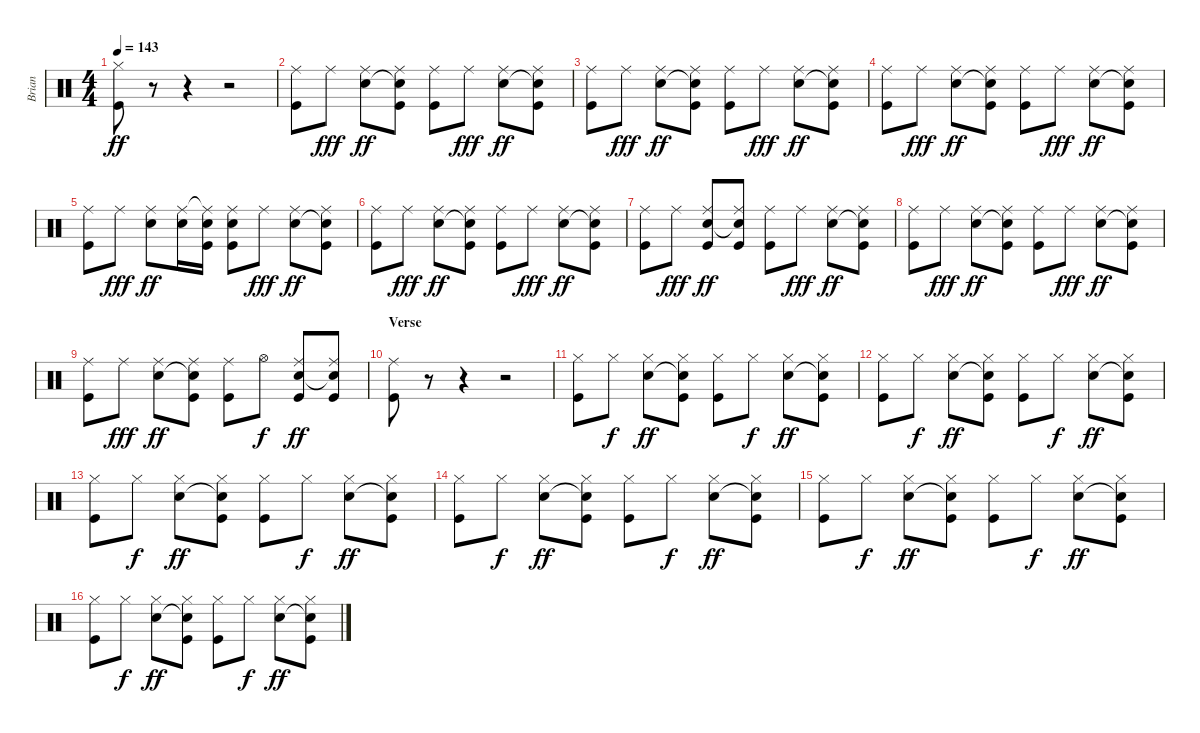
\track ("Brian" "Brian") {instrument percussion}
\staff {score}
\articulation defaults
\ts (4 4)
\tempo 143
\clef neutral
\ks c
("Hi-Hat (closed)" "Kick (hit)").8{dy ff} r.8 r.4 r.2 |
("Ride (middle)" "Kick (hit)").8 "Ride (middle)".8{dy fff} ("Ride (middle)" "Electric Snare (hit)").8{dy ff} ("Ride (middle)" "Snare (hit)"{t} "Kick (hit)").8 ("Ride (middle)" "Kick (hit)").8 "Ride (middle)".8{dy fff} ("Ride (middle)" "Electric Snare (hit)").8{dy ff} ("Ride (middle)" "Snare (hit)"{t} "Kick (hit)").8 |
("Ride (middle)" "Kick (hit)").8 "Ride (middle)".8{dy fff} ("Ride (middle)" "Electric Snare (hit)").8{dy ff} ("Ride (middle)" "Snare (hit)"{t} "Kick (hit)").8 ("Ride (middle)" "Kick (hit)").8 "Ride (middle)".8{dy fff} ("Ride (middle)" "Electric Snare (hit)").8{dy ff} ("Ride (middle)" "Snare (hit)"{t} "Kick (hit)").8 |
("Ride (middle)" "Kick (hit)").8 "Ride (middle)".8{dy fff} ("Ride (middle)" "Electric Snare (hit)").8{dy ff} ("Ride (middle)" "Snare (hit)"{t} "Kick (hit)").8 ("Ride (middle)" "Kick (hit)").8 "Ride (middle)".8{dy fff} ("Ride (middle)" "Electric Snare (hit)").8{dy ff} ("Ride (middle)" "Snare (hit)"{t} "Kick (hit)").8 |
("Ride (middle)" "Kick (hit)").8 "Ride (middle)".8{dy fff} ("Ride (middle)" "Electric Snare (hit)").8{dy ff} ("Ride (middle)" "Electric Snare (hit)").16 ("Ride (middle)"{t} "Electric Snare (hit)" "Kick (hit)").16 ("Ride (middle)" "Electric Snare (hit)" "Kick (hit)").8 "Ride (middle)".8{dy fff} ("Ride (middle)" "Electric Snare (hit)").8{dy ff} ("Ride (middle)" "Snare (hit)"{t} "Kick (hit)").8 |
("Ride (middle)" "Kick (hit)").8 "Ride (middle)".8{dy fff} ("Ride (middle)" "Electric Snare (hit)").8{dy ff} ("Ride (middle)" "Snare (hit)"{t} "Kick (hit)").8 ("Ride (middle)" "Kick (hit)").8 "Ride (middle)".8{dy fff} ("Ride (middle)" "Electric Snare (hit)").8{dy ff} ("Ride (middle)" "Snare (hit)"{t} "Kick (hit)").8 |
("Ride (middle)" "Kick (hit)").8 "Ride (middle)".8{dy fff} ("Ride (middle)" "Electric Snare (hit)" "Kick (hit)").8{dy ff} ("Ride (middle)" "Snare (hit)"{t} "Kick (hit)").8 ("Ride (middle)" "Kick (hit)").8 "Ride (middle)".8{dy fff} ("Ride (middle)" "Electric Snare (hit)").8{dy ff} ("Ride (middle)" "Snare (hit)"{t} "Kick (hit)").8 |
("Ride (middle)" "Kick (hit)").8 "Ride (middle)".8{dy fff} ("Ride (middle)" "Electric Snare (hit)").8{dy ff} ("Ride (middle)" "Snare (hit)"{t} "Kick (hit)").8 ("Ride (middle)" "Kick (hit)").8 "Ride (middle)".8{dy fff} ("Ride (middle)" "Electric Snare (hit)").8{dy ff} ("Ride (middle)" "Snare (hit)"{t} "Kick (hit)").8 |
("Ride (middle)" "Kick (hit)").8 "Ride (middle)".8{dy fff} ("Ride (middle)" "Electric Snare (hit)").8{dy ff} ("Ride (middle)" "Snare (hit)"{t} "Kick (hit)").8 ("Ride (middle)" "Kick (hit)").8 "Hi-Hat (open)".8{dy f} ("Ride (middle)" "Electric Snare (hit)" "Kick (hit)").8{dy ff} ("Ride (middle)" "Snare (hit)"{t} "Kick (hit)").8 |
\section ("" "Verse")
("Ride (middle)" "Kick (hit)").8 r.8 r.4 r.2 |
("Hi-Hat (closed)" "Kick (hit)").8 "Hi-Hat (closed)".8{dy f} ("Hi-Hat (closed)" "Electric Snare (hit)").8{dy ff} ("Hi-Hat (closed)" "Snare (hit)"{t} "Kick (hit)").8 ("Hi-Hat (closed)" "Kick (hit)").8 "Hi-Hat (closed)".8{dy f} ("Hi-Hat (closed)" "Electric Snare (hit)").8{dy ff} ("Hi-Hat (closed)" "Snare (hit)"{t} "Kick (hit)").8 |
("Hi-Hat (closed)" "Kick (hit)").8 "Hi-Hat (closed)".8{dy f} ("Hi-Hat (closed)" "Electric Snare (hit)").8{dy ff} ("Hi-Hat (closed)" "Snare (hit)"{t} "Kick (hit)").8 ("Hi-Hat (closed)" "Kick (hit)").8 "Hi-Hat (closed)".8{dy f} ("Hi-Hat (closed)" "Electric Snare (hit)").8{dy ff} ("Hi-Hat (closed)" "Snare (hit)"{t} "Kick (hit)").8 |
("Hi-Hat (closed)" "Kick (hit)").8 "Hi-Hat (closed)".8{dy f} ("Hi-Hat (closed)" "Electric Snare (hit)").8{dy ff} ("Hi-Hat (closed)" "Snare (hit)"{t} "Kick (hit)").8 ("Hi-Hat (closed)" "Kick (hit)").8 "Hi-Hat (closed)".8{dy f} ("Hi-Hat (closed)" "Electric Snare (hit)").8{dy ff} ("Hi-Hat (closed)" "Snare (hit)"{t} "Kick (hit)").8 |
("Hi-Hat (closed)" "Kick (hit)").8 "Hi-Hat (closed)".8{dy f} ("Hi-Hat (closed)" "Electric Snare (hit)").8{dy ff} ("Hi-Hat (closed)" "Snare (hit)"{t} "Kick (hit)").8 ("Hi-Hat (closed)" "Kick (hit)").8 "Hi-Hat (closed)".8{dy f} ("Hi-Hat (closed)" "Electric Snare (hit)").8{dy ff} ("Hi-Hat (closed)" "Snare (hit)"{t} "Kick (hit)").8 |
("Hi-Hat (closed)" "Kick (hit)").8 "Hi-Hat (closed)".8{dy f} ("Hi-Hat (closed)" "Electric Snare (hit)").8{dy ff} ("Hi-Hat (closed)" "Snare (hit)"{t} "Kick (hit)").8 ("Hi-Hat (closed)" "Kick (hit)").8 "Hi-Hat (closed)".8{dy f} ("Hi-Hat (closed)" "Electric Snare (hit)").8{dy ff} ("Hi-Hat (closed)" "Snare (hit)"{t} "Kick (hit)").8 |
("Hi-Hat (closed)" "Kick (hit)").8 "Hi-Hat (closed)".8{dy f} ("Hi-Hat (closed)" "Electric Snare (hit)").8{dy ff} ("Hi-Hat (closed)" "Snare (hit)"{t} "Kick (hit)").8 ("Hi-Hat (closed)" "Kick (hit)").8 "Hi-Hat (closed)".8{dy f} ("Hi-Hat (closed)" "Electric Snare (hit)").8{dy ff} ("Hi-Hat (closed)" "Snare (hit)"{t} "Kick (hit)").8
